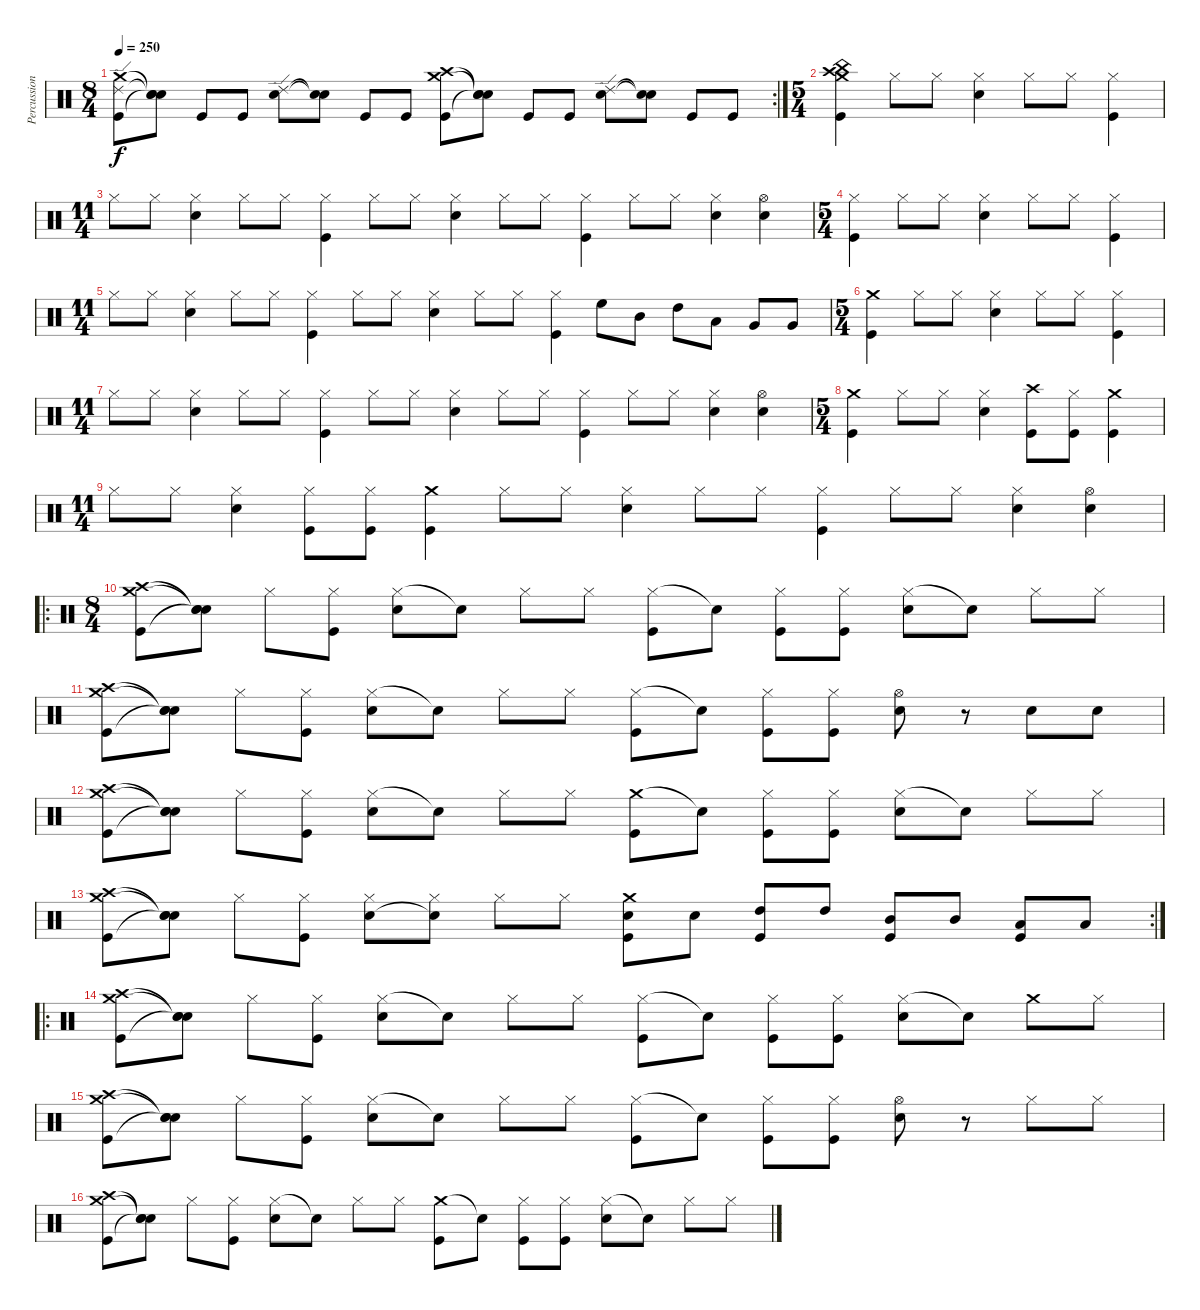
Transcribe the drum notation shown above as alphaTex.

\track ("Percussion" "Percussion") {instrument percussion}
\staff {score}
\articulation defaults
\rc 2
\ts (8 4)
\tempo 250
\clef neutral
\ks c
("Crash medium (hit)" "Ride (edge) 2" "Kick (hit)").8{dy f} ("Snare (hit)"{t} "Snare (hit)"{t} "Snare (hit)"{t}).8 "Kick (hit)".8 "Kick (hit)".8 ("Ride (edge) 2" "Snare (hit) 2").8 ("Snare (hit)"{t} "Snare (hit)"{t}).8 "Kick (hit)".8 "Kick (hit)".8 ("Crash medium (hit)" "Crash high (hit)" "Kick (hit)").8 ("Snare (hit)"{t} "Snare (hit)"{t} "Snare (hit)"{t}).8 "Kick (hit)".8 "Kick (hit)".8 ("Ride (edge) 2" "Snare (hit) 2").8 ("Snare (hit)"{t} "Snare (hit)"{t}).8 "Kick (hit)".8 "Kick (hit)".8 |
\ts (5 4)
("Crash medium (hit)" "Crash high (hit)" "China (hit)" "Kick (hit)").4 "Hi-Hat (closed)".8 "Hi-Hat (closed)".8 ("Hi-Hat (closed)" "Snare (hit) 2").4 "Hi-Hat (closed)".8 "Hi-Hat (closed)".8 ("Hi-Hat (closed)" "Kick (hit)").4 |
\ts (11 4)
"Hi-Hat (closed)".8 "Hi-Hat (closed)".8 ("Hi-Hat (closed)" "Snare (hit) 2").4 "Hi-Hat (closed)".8 "Hi-Hat (closed)".8 ("Hi-Hat (closed)" "Kick (hit)").4 "Hi-Hat (closed)".8 "Hi-Hat (closed)".8 ("Hi-Hat (closed)" "Snare (hit) 2").4 "Hi-Hat (closed)".8 "Hi-Hat (closed)".8 ("Hi-Hat (closed)" "Kick (hit)").4 "Hi-Hat (closed)".8 "Hi-Hat (closed)".8 ("Hi-Hat (closed)" "Snare (hit) 2").4 ("Hi-Hat (open)" "Snare (hit) 2").4 |
\ts (5 4)
("Hi-Hat (closed)" "Kick (hit)").4 "Hi-Hat (closed)".8 "Hi-Hat (closed)".8 ("Hi-Hat (closed)" "Snare (hit) 2").4 "Hi-Hat (closed)".8 "Hi-Hat (closed)".8 ("Hi-Hat (closed)" "Kick (hit)").4 |
\ts (11 4)
"Hi-Hat (closed)".8 "Hi-Hat (closed)".8 ("Hi-Hat (closed)" "Snare (hit) 2").4 "Hi-Hat (closed)".8 "Hi-Hat (closed)".8 ("Hi-Hat (closed)" "Kick (hit)").4 "Hi-Hat (closed)".8 "Hi-Hat (closed)".8 ("Hi-Hat (closed)" "Snare (hit) 2").4 "Hi-Hat (closed)".8 "Hi-Hat (closed)".8 ("Hi-Hat (closed)" "Kick (hit)").4 "High Floor Tom (hit)".8 "Mid Tom (hit)".8 "High Tom (hit)".8 "Low Tom (hit)".8 "Very Low Tom (hit)".8 "Very Low Tom (hit)".8 |
\ts (5 4)
("Crash medium (hit)" "Kick (hit)").4 "Hi-Hat (closed)".8 "Hi-Hat (closed)".8 ("Hi-Hat (closed)" "Snare (hit) 2").4 "Hi-Hat (closed)".8 "Hi-Hat (closed)".8 ("Hi-Hat (closed)" "Kick (hit)").4 |
\ts (11 4)
"Hi-Hat (closed)".8 "Hi-Hat (closed)".8 ("Hi-Hat (closed)" "Snare (hit) 2").4 "Hi-Hat (closed)".8 "Hi-Hat (closed)".8 ("Hi-Hat (closed)" "Kick (hit)").4 "Hi-Hat (closed)".8 "Hi-Hat (closed)".8 ("Hi-Hat (closed)" "Snare (hit) 2").4 "Hi-Hat (closed)".8 "Hi-Hat (closed)".8 ("Hi-Hat (closed)" "Kick (hit)").4 "Hi-Hat (closed)".8 "Hi-Hat (closed)".8 ("Hi-Hat (closed)" "Snare (hit) 2").4 ("Hi-Hat (open)" "Snare (hit) 2").4 |
\ts (5 4)
("Crash medium (hit)" "Kick (hit)").4 "Hi-Hat (closed)".8 "Hi-Hat (closed)".8 ("Hi-Hat (closed)" "Snare (hit) 2").4 ("Crash high (hit)" "Kick (hit)").8 ("Hi-Hat (closed)" "Kick (hit)").8 ("Crash medium (hit)" "Kick (hit)").4 |
\ts (11 4)
"Hi-Hat (closed)".8 "Hi-Hat (closed)".8 ("Hi-Hat (closed)" "Snare (hit) 2").4 ("Hi-Hat (closed)" "Kick (hit)").8 ("Hi-Hat (closed)" "Kick (hit)").8 ("Crash medium (hit)" "Kick (hit)").4 "Hi-Hat (closed)".8 "Hi-Hat (closed)".8 ("Hi-Hat (closed)" "Snare (hit) 2").4 "Hi-Hat (closed)".8 "Hi-Hat (closed)".8 ("Hi-Hat (closed)" "Kick (hit)").4 "Hi-Hat (closed)".8 "Hi-Hat (closed)".8 ("Hi-Hat (closed)" "Snare (hit) 2").4 ("Hi-Hat (open)" "Snare (hit) 2").4 |
\ro
\ts (8 4)
("Crash medium (hit)" "Crash high (hit)" "Kick (hit)").8 ("Snare (hit)"{t} "Snare (hit)"{t} "Snare (hit)"{t}).8 "Hi-Hat (closed)".8 ("Hi-Hat (closed)" "Kick (hit)").8 ("Hi-Hat (closed)" "Snare (hit) 2").8 "Snare (hit)"{t}.8 "Hi-Hat (closed)".8 "Hi-Hat (closed)".8 ("Hi-Hat (closed)" "Kick (hit)").8 "Snare (hit)"{t}.8 ("Hi-Hat (closed)" "Kick (hit)").8 ("Hi-Hat (closed)" "Kick (hit)").8 ("Hi-Hat (closed)" "Snare (hit) 2").8 "Snare (hit)"{t}.8 "Hi-Hat (closed)".8 "Hi-Hat (closed)".8 |
("Crash medium (hit)" "Crash high (hit)" "Kick (hit)").8 ("Snare (hit)"{t} "Snare (hit)"{t} "Snare (hit)"{t}).8 "Hi-Hat (closed)".8 ("Hi-Hat (closed)" "Kick (hit)").8 ("Hi-Hat (closed)" "Snare (hit) 2").8 "Snare (hit)"{t}.8 "Hi-Hat (closed)".8 "Hi-Hat (closed)".8 ("Hi-Hat (closed)" "Kick (hit)").8 "Snare (hit)"{t}.8 ("Hi-Hat (closed)" "Kick (hit)").8 ("Hi-Hat (closed)" "Kick (hit)").8 ("Hi-Hat (open)" "Snare (hit) 2").8 r.8 "Snare (hit) 2".8 "Snare (hit) 2".8 |
("Crash medium (hit)" "Crash high (hit)" "Kick (hit)").8 ("Snare (hit)"{t} "Snare (hit)"{t} "Snare (hit)"{t}).8 "Hi-Hat (closed)".8 ("Hi-Hat (closed)" "Kick (hit)").8 ("Hi-Hat (closed)" "Snare (hit) 2").8 "Snare (hit)"{t}.8 "Hi-Hat (closed)".8 "Hi-Hat (closed)".8 ("Crash medium (hit)" "Kick (hit)").8 "Snare (hit)"{t}.8 ("Hi-Hat (closed)" "Kick (hit)").8 ("Hi-Hat (closed)" "Kick (hit)").8 ("Hi-Hat (closed)" "Snare (hit) 2").8 "Snare (hit)"{t}.8 "Hi-Hat (closed)".8 "Hi-Hat (closed)".8 |
\rc 2
("Crash medium (hit)" "Crash high (hit)" "Kick (hit)").8 ("Snare (hit)"{t} "Snare (hit)"{t} "Snare (hit)"{t}).8 "Hi-Hat (closed)".8 ("Hi-Hat (closed)" "Kick (hit)").8 ("Hi-Hat (closed)" "Snare (hit) 2").8 ("Hi-Hat (closed)" "Snare (hit)"{t}).8 "Hi-Hat (closed)".8 "Hi-Hat (closed)".8 ("Crash medium (hit)" "Snare (hit) 2" "Kick (hit)").8 "Snare (hit) 2".8 ("High Tom (hit)" "Kick (hit)").8 "High Tom (hit)".8 ("Mid Tom (hit)" "Kick (hit)").8 "Mid Tom (hit)".8 ("Low Tom (hit)" "Kick (hit)").8 "Low Tom (hit)".8 |
\ro
("Crash medium (hit)" "Crash high (hit)" "Kick (hit)").8 ("Snare (hit)"{t} "Snare (hit)"{t} "Snare (hit)"{t}).8 "Hi-Hat (closed)".8 ("Hi-Hat (closed)" "Kick (hit)").8 ("Hi-Hat (closed)" "Snare (hit) 2").8 "Snare (hit)"{t}.8 "Hi-Hat (closed)".8 "Hi-Hat (closed)".8 ("Hi-Hat (closed)" "Kick (hit)").8 "Snare (hit)"{t}.8 ("Hi-Hat (closed)" "Kick (hit)").8 ("Hi-Hat (closed)" "Kick (hit)").8 ("Hi-Hat (closed)" "Snare (hit) 2").8 "Snare (hit)"{t}.8 "Crash medium (hit)".8 "Hi-Hat (closed)".8 |
("Crash medium (hit)" "Crash high (hit)" "Kick (hit)").8 ("Snare (hit)"{t} "Snare (hit)"{t} "Snare (hit)"{t}).8 "Hi-Hat (closed)".8 ("Hi-Hat (closed)" "Kick (hit)").8 ("Hi-Hat (closed)" "Snare (hit) 2").8 "Snare (hit)"{t}.8 "Hi-Hat (closed)".8 "Hi-Hat (closed)".8 ("Hi-Hat (closed)" "Kick (hit)").8 "Snare (hit)"{t}.8 ("Hi-Hat (closed)" "Kick (hit)").8 ("Hi-Hat (closed)" "Kick (hit)").8 ("Hi-Hat (open)" "Snare (hit) 2").8 r.8 "Hi-Hat (closed)".8 "Hi-Hat (closed)".8 |
("Crash medium (hit)" "Crash high (hit)" "Kick (hit)").8 ("Snare (hit)"{t} "Snare (hit)"{t} "Snare (hit)"{t}).8 "Hi-Hat (closed)".8 ("Hi-Hat (closed)" "Kick (hit)").8 ("Hi-Hat (closed)" "Snare (hit) 2").8 "Snare (hit)"{t}.8 "Hi-Hat (closed)".8 "Hi-Hat (closed)".8 ("Crash medium (hit)" "Kick (hit)").8 "Snare (hit)"{t}.8 ("Hi-Hat (closed)" "Kick (hit)").8 ("Hi-Hat (closed)" "Kick (hit)").8 ("Hi-Hat (closed)" "Snare (hit) 2").8 "Snare (hit)"{t}.8 "Hi-Hat (closed)".8 "Hi-Hat (closed)".8
